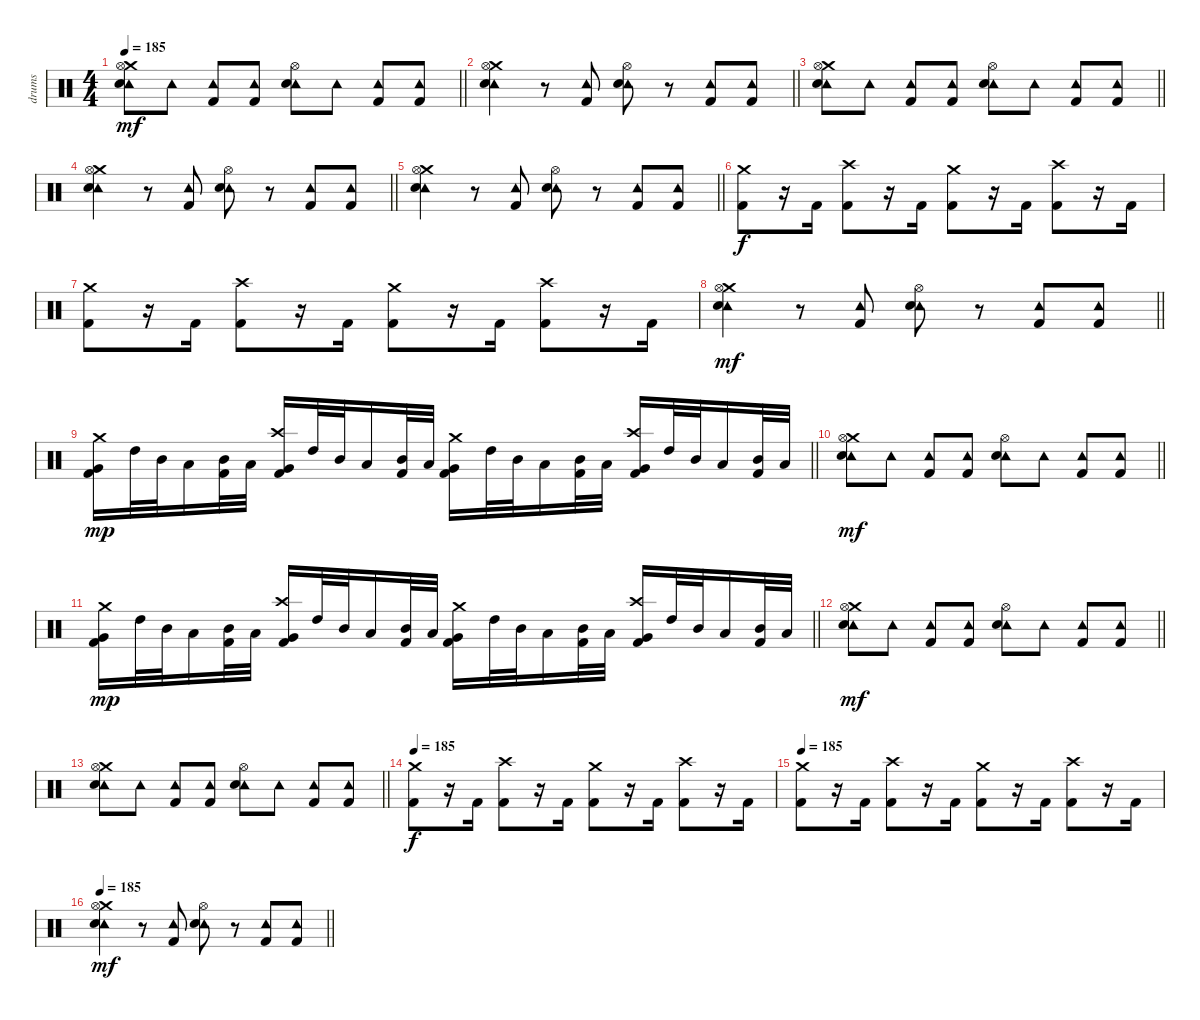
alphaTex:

\track ("drums" "drums") {instrument percussion}
\staff {score}
\articulation defaults
\ts (4 4)
\tempo 185
\clef neutral
\barLineRight lightlight
\ks c
("Tambourine (hit)" "Crash medium (hit)" "Hi-Hat (open)" "Electric Snare (hit)").8{dy mf} "Tambourine (hit)".8 ("Tambourine (hit)" "Kick (hit) 2").8 ("Tambourine (hit)" "Kick (hit) 2").8 ("Tambourine (hit)" "Hi-Hat (open)" "Electric Snare (hit)").8 "Tambourine (hit)".8 ("Tambourine (hit)" "Kick (hit) 2").8 ("Tambourine (hit)" "Kick (hit) 2").8 |
\barLineRight lightlight
("Tambourine (hit)" "Crash medium (hit)" "Hi-Hat (open)" "Electric Snare (hit)").4 r.8 ("Tambourine (hit)" "Kick (hit) 2").8 ("Tambourine (hit)" "Hi-Hat (open)" "Electric Snare (hit)").8 r.8 ("Tambourine (hit)" "Kick (hit) 2").8 ("Tambourine (hit)" "Kick (hit) 2").8 |
\barLineRight lightlight
("Tambourine (hit)" "Crash medium (hit)" "Hi-Hat (open)" "Electric Snare (hit)").8 "Tambourine (hit)".8 ("Tambourine (hit)" "Kick (hit) 2").8 ("Tambourine (hit)" "Kick (hit) 2").8 ("Tambourine (hit)" "Hi-Hat (open)" "Electric Snare (hit)").8 "Tambourine (hit)".8 ("Tambourine (hit)" "Kick (hit) 2").8 ("Tambourine (hit)" "Kick (hit) 2").8 |
\barLineRight lightlight
("Tambourine (hit)" "Crash medium (hit)" "Hi-Hat (open)" "Electric Snare (hit)").4 r.8 ("Tambourine (hit)" "Kick (hit) 2").8 ("Tambourine (hit)" "Hi-Hat (open)" "Electric Snare (hit)").8 r.8 ("Tambourine (hit)" "Kick (hit) 2").8 ("Tambourine (hit)" "Kick (hit) 2").8 |
\barLineRight lightlight
("Tambourine (hit)" "Crash medium (hit)" "Hi-Hat (open)" "Electric Snare (hit)").4 r.8 ("Tambourine (hit)" "Kick (hit) 2").8 ("Tambourine (hit)" "Hi-Hat (open)" "Electric Snare (hit)").8 r.8 ("Tambourine (hit)" "Kick (hit) 2").8 ("Tambourine (hit)" "Kick (hit) 2").8 |
("Crash medium (hit)" "Kick (hit) 2").8{dy f} r.16 "Kick (hit) 2".16 ("Crash high (hit)" "Kick (hit) 2").8 r.16 "Kick (hit) 2".16 ("Crash medium (hit)" "Kick (hit) 2").8 r.16 "Kick (hit) 2".16 ("Crash high (hit)" "Kick (hit) 2").8 r.16 "Kick (hit) 2".16 |
("Crash medium (hit)" "Kick (hit) 2").8 r.16 "Kick (hit) 2".16 ("Crash high (hit)" "Kick (hit) 2").8 r.16 "Kick (hit) 2".16 ("Crash medium (hit)" "Kick (hit) 2").8 r.16 "Kick (hit) 2".16 ("Crash high (hit)" "Kick (hit) 2").8 r.16 "Kick (hit) 2".16 |
\barLineRight lightlight
("Tambourine (hit)" "Crash medium (hit)" "Hi-Hat (open)" "Electric Snare (hit)").4{dy mf} r.8 ("Tambourine (hit)" "Kick (hit) 2").8 ("Tambourine (hit)" "Hi-Hat (open)" "Electric Snare (hit)").8 r.8 ("Tambourine (hit)" "Kick (hit) 2").8 ("Tambourine (hit)" "Kick (hit) 2").8 |
\barLineRight lightlight
("Crash medium (hit)" "Very Low Tom (hit)" "Kick (hit) 2").16{dy mp} "High Tom (hit)".32 "Mid Tom (hit)".32 "Low Tom (hit)".16 ("Mid Tom (hit)" "Kick (hit) 2").32 "Low Tom (hit)".32 ("Crash high (hit)" "Very Low Tom (hit)" "Kick (hit) 2").16 "High Tom (hit)".32 "Mid Tom (hit)".32 "Low Tom (hit)".16 ("Mid Tom (hit)" "Kick (hit) 2").32 "Low Tom (hit)".32 ("Crash medium (hit)" "Very Low Tom (hit)" "Kick (hit) 2").16 "High Tom (hit)".32 "Mid Tom (hit)".32 "Low Tom (hit)".16 ("Mid Tom (hit)" "Kick (hit) 2").32 "Low Tom (hit)".32 ("Crash high (hit)" "Very Low Tom (hit)" "Kick (hit) 2").16 "High Tom (hit)".32 "Mid Tom (hit)".32 "Low Tom (hit)".16 ("Mid Tom (hit)" "Kick (hit) 2").32 "Low Tom (hit)".32 |
\barLineRight lightlight
("Tambourine (hit)" "Crash medium (hit)" "Hi-Hat (open)" "Electric Snare (hit)").8{dy mf} "Tambourine (hit)".8 ("Tambourine (hit)" "Kick (hit) 2").8 ("Tambourine (hit)" "Kick (hit) 2").8 ("Tambourine (hit)" "Hi-Hat (open)" "Electric Snare (hit)").8 "Tambourine (hit)".8 ("Tambourine (hit)" "Kick (hit) 2").8 ("Tambourine (hit)" "Kick (hit) 2").8 |
\barLineRight lightlight
("Crash medium (hit)" "Very Low Tom (hit)" "Kick (hit) 2").16{dy mp} "High Tom (hit)".32 "Mid Tom (hit)".32 "Low Tom (hit)".16 ("Mid Tom (hit)" "Kick (hit) 2").32 "Low Tom (hit)".32 ("Crash high (hit)" "Very Low Tom (hit)" "Kick (hit) 2").16 "High Tom (hit)".32 "Mid Tom (hit)".32 "Low Tom (hit)".16 ("Mid Tom (hit)" "Kick (hit) 2").32 "Low Tom (hit)".32 ("Crash medium (hit)" "Very Low Tom (hit)" "Kick (hit) 2").16 "High Tom (hit)".32 "Mid Tom (hit)".32 "Low Tom (hit)".16 ("Mid Tom (hit)" "Kick (hit) 2").32 "Low Tom (hit)".32 ("Crash high (hit)" "Very Low Tom (hit)" "Kick (hit) 2").16 "High Tom (hit)".32 "Mid Tom (hit)".32 "Low Tom (hit)".16 ("Mid Tom (hit)" "Kick (hit) 2").32 "Low Tom (hit)".32 |
\barLineRight lightlight
("Tambourine (hit)" "Crash medium (hit)" "Hi-Hat (open)" "Electric Snare (hit)").8{dy mf} "Tambourine (hit)".8 ("Tambourine (hit)" "Kick (hit) 2").8 ("Tambourine (hit)" "Kick (hit) 2").8 ("Tambourine (hit)" "Hi-Hat (open)" "Electric Snare (hit)").8 "Tambourine (hit)".8 ("Tambourine (hit)" "Kick (hit) 2").8 ("Tambourine (hit)" "Kick (hit) 2").8 |
\barLineRight lightlight
("Tambourine (hit)" "Crash medium (hit)" "Hi-Hat (open)" "Electric Snare (hit)").8 "Tambourine (hit)".8 ("Tambourine (hit)" "Kick (hit) 2").8 ("Tambourine (hit)" "Kick (hit) 2").8 ("Tambourine (hit)" "Hi-Hat (open)" "Electric Snare (hit)").8 "Tambourine (hit)".8 ("Tambourine (hit)" "Kick (hit) 2").8 ("Tambourine (hit)" "Kick (hit) 2").8 |
\tempo 185
("Crash medium (hit)" "Kick (hit) 2").8{dy f} r.16 "Kick (hit) 2".16 ("Crash high (hit)" "Kick (hit) 2").8 r.16 "Kick (hit) 2".16 ("Crash medium (hit)" "Kick (hit) 2").8 r.16 "Kick (hit) 2".16 ("Crash high (hit)" "Kick (hit) 2").8 r.16 "Kick (hit) 2".16 |
\tempo 185
("Crash medium (hit)" "Kick (hit) 2").8 r.16 "Kick (hit) 2".16 ("Crash high (hit)" "Kick (hit) 2").8 r.16 "Kick (hit) 2".16 ("Crash medium (hit)" "Kick (hit) 2").8 r.16 "Kick (hit) 2".16 ("Crash high (hit)" "Kick (hit) 2").8 r.16 "Kick (hit) 2".16 |
\tempo 185
\barLineRight lightlight
("Tambourine (hit)" "Crash medium (hit)" "Hi-Hat (open)" "Electric Snare (hit)").4{dy mf} r.8 ("Tambourine (hit)" "Kick (hit) 2").8 ("Tambourine (hit)" "Hi-Hat (open)" "Electric Snare (hit)").8 r.8 ("Tambourine (hit)" "Kick (hit) 2").8 ("Tambourine (hit)" "Kick (hit) 2").8
